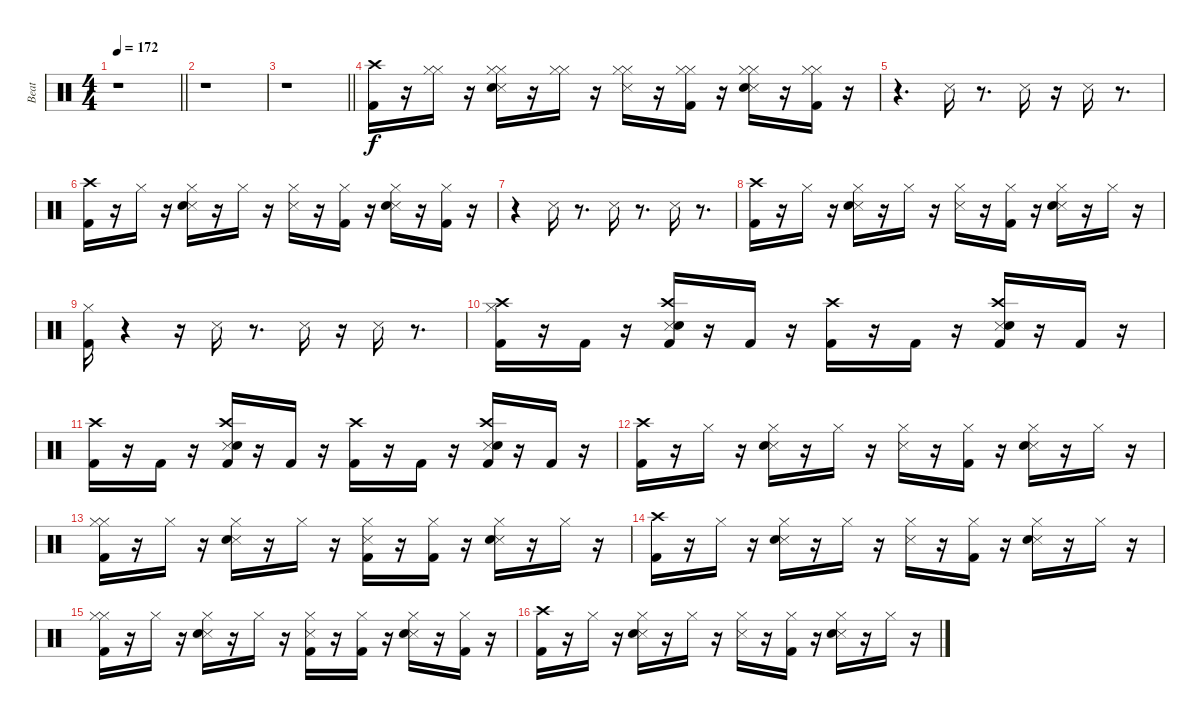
\track ("Beat" "Beat") {instrument percussion}
\staff {score}
\articulation defaults
\ts (4 4)
\tempo 172
\clef neutral
\barLineRight lightlight
\ks c
r.1{dy f} |
\section ("" " ")
r.1 |
\barLineRight lightlight
r.1 |
\section ("" " ")
("Kick (hit) 2" "Crash high (hit)").16 r.16 ("Hi-Hat (closed)" "Hi-Hat (closed)").16 r.16 ("Snare (side stick) 3" "Snare (hit) 2" "Hi-Hat (closed)" "Hi-Hat (closed)").16 r.16 ("Hi-Hat (closed)" "Hi-Hat (closed)").16 r.16 ("Snare (side stick) 3" "Hi-Hat (closed)" "Hi-Hat (closed)").16 r.16 ("Kick (hit) 2" "Hi-Hat (closed)" "Hi-Hat (closed)").16 r.16 ("Snare (side stick) 3" "Snare (hit) 2" "Hi-Hat (closed)" "Hi-Hat (closed)").16 r.16 ("Kick (hit) 2" "Hi-Hat (closed)" "Hi-Hat (closed)").16 r.16 |
r.4{d} "Snare (side stick) 3".16 r.8{d} "Snare (side stick) 3".16 r.16 "Snare (side stick) 3".16 r.8{d} |
("Kick (hit) 2" "Crash high (hit)").16 r.16 "Hi-Hat (closed)".16 r.16 ("Snare (side stick) 3" "Snare (hit) 2" "Hi-Hat (closed)").16 r.16 "Hi-Hat (closed)".16 r.16 ("Snare (side stick) 3" "Hi-Hat (closed)").16 r.16 ("Kick (hit) 2" "Hi-Hat (closed)").16 r.16 ("Snare (side stick) 3" "Snare (hit) 2" "Hi-Hat (closed)").16 r.16 ("Kick (hit) 2" "Hi-Hat (closed)").16 r.16 |
r.4 "Snare (side stick) 3".16 r.8{d} "Snare (side stick) 3".16 r.8{d} "Snare (side stick) 3".16 r.8{d} |
("Kick (hit) 2" "Crash high (hit)").16 r.16 "Hi-Hat (closed)".16 r.16 ("Snare (side stick) 3" "Snare (hit) 2" "Hi-Hat (closed)").16 r.16 "Hi-Hat (closed)".16 r.16 ("Snare (side stick) 3" "Hi-Hat (closed)").16 r.16 ("Kick (hit) 2" "Hi-Hat (closed)").16 r.16 ("Snare (side stick) 3" "Snare (hit) 2" "Hi-Hat (closed)").16 r.16 "Hi-Hat (closed)".16 r.16 |
("Kick (hit) 2" "Hi-Hat (closed)").16 r.4 r.16 "Snare (side stick) 3".16 r.8{d} "Snare (side stick) 3".16 r.16 "Snare (side stick) 3".16 r.8{d} |
("Kick (hit) 2" "Hi-Hat (closed)" "Crash high (hit)").16 r.16 "Kick (hit) 2".16 r.16 ("Kick (hit) 2" "Snare (side stick) 3" "Snare (hit) 2" "Crash high (hit)").16 r.16 "Kick (hit) 2".16 r.16 ("Kick (hit) 2" "Crash high (hit)").16 r.16 "Kick (hit) 2".16 r.16 ("Kick (hit) 2" "Snare (side stick) 3" "Snare (hit) 2" "Crash high (hit)").16 r.16 "Kick (hit) 2".16 r.16 |
("Kick (hit) 2" "Crash high (hit)").16 r.16 "Kick (hit) 2".16 r.16 ("Kick (hit) 2" "Snare (side stick) 3" "Snare (hit) 2" "Crash high (hit)").16 r.16 "Kick (hit) 2".16 r.16 ("Kick (hit) 2" "Crash high (hit)").16 r.16 "Kick (hit) 2".16 r.16 ("Kick (hit) 2" "Snare (side stick) 3" "Snare (hit) 2" "Crash high (hit)").16 r.16 "Kick (hit) 2".16 r.16 |
("Kick (hit) 2" "Crash high (hit)").16 r.16 "Hi-Hat (closed)".16 r.16 ("Snare (side stick) 3" "Snare (hit) 2" "Hi-Hat (closed)").16 r.16 "Hi-Hat (closed)".16 r.16 ("Snare (side stick) 3" "Hi-Hat (closed)").16 r.16 ("Kick (hit) 2" "Hi-Hat (closed)").16 r.16 ("Snare (side stick) 3" "Snare (hit) 2" "Hi-Hat (closed)").16 r.16 "Hi-Hat (closed)".16 r.16 |
("Kick (hit) 2" "Hi-Hat (closed)" "Hi-Hat (closed)").16 r.16 "Hi-Hat (closed)".16 r.16 ("Snare (side stick) 3" "Snare (hit) 2" "Hi-Hat (closed)").16 r.16 "Hi-Hat (closed)".16 r.16 ("Kick (hit) 2" "Snare (side stick) 3" "Hi-Hat (closed)").16 r.16 ("Kick (hit) 2" "Hi-Hat (closed)").16 r.16 ("Snare (side stick) 3" "Snare (hit) 2" "Hi-Hat (closed)").16 r.16 "Hi-Hat (closed)".16 r.16 |
("Kick (hit) 2" "Crash high (hit)").16 r.16 "Hi-Hat (closed)".16 r.16 ("Snare (side stick) 3" "Snare (hit) 2" "Hi-Hat (closed)").16 r.16 "Hi-Hat (closed)".16 r.16 ("Snare (side stick) 3" "Hi-Hat (closed)").16 r.16 ("Kick (hit) 2" "Hi-Hat (closed)").16 r.16 ("Snare (side stick) 3" "Snare (hit) 2" "Hi-Hat (closed)").16 r.16 "Hi-Hat (closed)".16 r.16 |
("Kick (hit) 2" "Hi-Hat (closed)" "Hi-Hat (closed)").16 r.16 "Hi-Hat (closed)".16 r.16 ("Snare (side stick) 3" "Snare (hit) 2" "Hi-Hat (closed)").16 r.16 "Hi-Hat (closed)".16 r.16 ("Kick (hit) 2" "Snare (side stick) 3" "Hi-Hat (closed)").16 r.16 ("Kick (hit) 2" "Hi-Hat (closed)").16 r.16 ("Snare (side stick) 3" "Snare (hit) 2" "Hi-Hat (closed)").16 r.16 ("Kick (hit) 2" "Hi-Hat (closed)").16 r.16 |
("Kick (hit) 2" "Crash high (hit)").16 r.16 "Hi-Hat (closed)".16 r.16 ("Snare (side stick) 3" "Snare (hit) 2" "Hi-Hat (closed)").16 r.16 "Hi-Hat (closed)".16 r.16 ("Snare (side stick) 3" "Hi-Hat (closed)").16 r.16 ("Kick (hit) 2" "Hi-Hat (closed)").16 r.16 ("Snare (side stick) 3" "Snare (hit) 2" "Hi-Hat (closed)").16 r.16 "Hi-Hat (closed)".16 r.16
